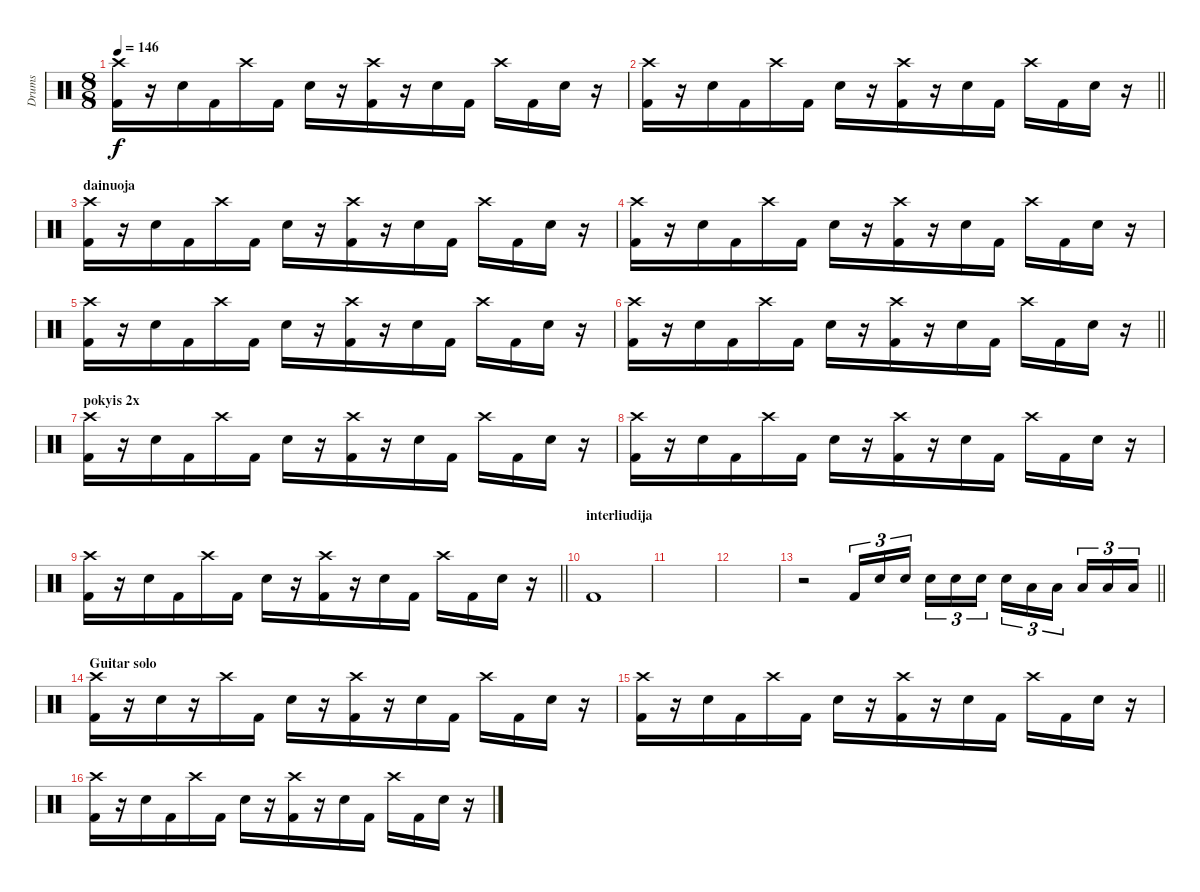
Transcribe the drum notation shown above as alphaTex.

\track ("Drums" "Drums") {instrument percussion}
\staff {score}
\articulation defaults
\ts (8 8)
\tempo 146
\clef neutral
\ks c
("Crash high (hit)" "Kick (hit) 2").16{dy f} r.16 "Snare (hit) 2".16 "Kick (hit) 2".16 "Crash high (hit)".16 "Kick (hit) 2".16 "Snare (hit) 2".16 r.16 ("Crash high (hit)" "Kick (hit) 2").16 r.16 "Snare (hit) 2".16 "Kick (hit) 2".16 "Crash high (hit)".16 "Kick (hit) 2".16 "Snare (hit) 2".16 r.16 |
\barLineRight lightlight
("Crash high (hit)" "Kick (hit) 2").16 r.16 "Snare (hit) 2".16 "Kick (hit) 2".16 "Crash high (hit)".16 "Kick (hit) 2".16 "Snare (hit) 2".16 r.16 ("Crash high (hit)" "Kick (hit) 2").16 r.16 "Snare (hit) 2".16 "Kick (hit) 2".16 "Crash high (hit)".16 "Kick (hit) 2".16 "Snare (hit) 2".16 r.16 |
\section ("" "dainuoja")
("Crash high (hit)" "Kick (hit) 2").16 r.16 "Snare (hit) 2".16 "Kick (hit) 2".16 "Crash high (hit)".16 "Kick (hit) 2".16 "Snare (hit) 2".16 r.16 ("Crash high (hit)" "Kick (hit) 2").16 r.16 "Snare (hit) 2".16 "Kick (hit) 2".16 "Crash high (hit)".16 "Kick (hit) 2".16 "Snare (hit) 2".16 r.16 |
("Crash high (hit)" "Kick (hit) 2").16 r.16 "Snare (hit) 2".16 "Kick (hit) 2".16 "Crash high (hit)".16 "Kick (hit) 2".16 "Snare (hit) 2".16 r.16 ("Crash high (hit)" "Kick (hit) 2").16 r.16 "Snare (hit) 2".16 "Kick (hit) 2".16 "Crash high (hit)".16 "Kick (hit) 2".16 "Snare (hit) 2".16 r.16 |
("Crash high (hit)" "Kick (hit) 2").16 r.16 "Snare (hit) 2".16 "Kick (hit) 2".16 "Crash high (hit)".16 "Kick (hit) 2".16 "Snare (hit) 2".16 r.16 ("Crash high (hit)" "Kick (hit) 2").16 r.16 "Snare (hit) 2".16 "Kick (hit) 2".16 "Crash high (hit)".16 "Kick (hit) 2".16 "Snare (hit) 2".16 r.16 |
\barLineRight lightlight
("Crash high (hit)" "Kick (hit) 2").16 r.16 "Snare (hit) 2".16 "Kick (hit) 2".16 "Crash high (hit)".16 "Kick (hit) 2".16 "Snare (hit) 2".16 r.16 ("Crash high (hit)" "Kick (hit) 2").16 r.16 "Snare (hit) 2".16 "Kick (hit) 2".16 "Crash high (hit)".16 "Kick (hit) 2".16 "Snare (hit) 2".16 r.16 |
\section ("" "pokyis 2x")
("Crash high (hit)" "Kick (hit) 2").16 r.16 "Snare (hit) 2".16 "Kick (hit) 2".16 "Crash high (hit)".16 "Kick (hit) 2".16 "Snare (hit) 2".16 r.16 ("Crash high (hit)" "Kick (hit) 2").16 r.16 "Snare (hit) 2".16 "Kick (hit) 2".16 "Crash high (hit)".16 "Kick (hit) 2".16 "Snare (hit) 2".16 r.16 |
("Crash high (hit)" "Kick (hit) 2").16 r.16 "Snare (hit) 2".16 "Kick (hit) 2".16 "Crash high (hit)".16 "Kick (hit) 2".16 "Snare (hit) 2".16 r.16 ("Crash high (hit)" "Kick (hit) 2").16 r.16 "Snare (hit) 2".16 "Kick (hit) 2".16 "Crash high (hit)".16 "Kick (hit) 2".16 "Snare (hit) 2".16 r.16 |
\barLineRight lightlight
("Crash high (hit)" "Kick (hit) 2").16 r.16 "Snare (hit) 2".16 "Kick (hit) 2".16 "Crash high (hit)".16 "Kick (hit) 2".16 "Snare (hit) 2".16 r.16 ("Crash high (hit)" "Kick (hit) 2").16 r.16 "Snare (hit) 2".16 "Kick (hit) 2".16 "Crash high (hit)".16 "Kick (hit) 2".16 "Snare (hit) 2".16 r.16 |
\section ("" "interliudija")
"Kick (hit) 2".1 |
|
|
\barLineRight lightlight
r.2 "Kick (hit) 2".16{tu (3 2)} "Snare (hit) 2".16{tu (3 2)} "Snare (hit) 2".16{tu (3 2)} "Snare (hit) 2".16{tu (3 2)} "Snare (hit) 2".16{tu (3 2)} "Snare (hit) 2".16{tu (3 2)} "Snare (hit) 2".16{tu (3 2)} "Low Tom (hit)".16{tu (3 2)} "Low Tom (hit)".16{tu (3 2)} "Low Floor Tom (hit)".16{tu (3 2)} "Low Floor Tom (hit)".16{tu (3 2)} "Low Floor Tom (hit)".16{tu (3 2)} |
\section ("" "Guitar solo")
("Crash high (hit)" "Kick (hit) 2").16 r.16 "Snare (hit) 2".16 r.16 "Crash high (hit)".16 "Kick (hit) 2".16 "Snare (hit) 2".16 r.16 ("Crash high (hit)" "Kick (hit) 2").16 r.16 "Snare (hit) 2".16 "Kick (hit) 2".16 "Crash high (hit)".16 "Kick (hit) 2".16 "Snare (hit) 2".16 r.16 |
("Crash high (hit)" "Kick (hit) 2").16 r.16 "Snare (hit) 2".16 "Kick (hit) 2".16 "Crash high (hit)".16 "Kick (hit) 2".16 "Snare (hit) 2".16 r.16 ("Crash high (hit)" "Kick (hit) 2").16 r.16 "Snare (hit) 2".16 "Kick (hit) 2".16 "Crash high (hit)".16 "Kick (hit) 2".16 "Snare (hit) 2".16 r.16 |
("Crash high (hit)" "Kick (hit) 2").16 r.16 "Snare (hit) 2".16 "Kick (hit) 2".16 "Crash high (hit)".16 "Kick (hit) 2".16 "Snare (hit) 2".16 r.16 ("Crash high (hit)" "Kick (hit) 2").16 r.16 "Snare (hit) 2".16 "Kick (hit) 2".16 "Crash high (hit)".16 "Kick (hit) 2".16 "Snare (hit) 2".16 r.16
